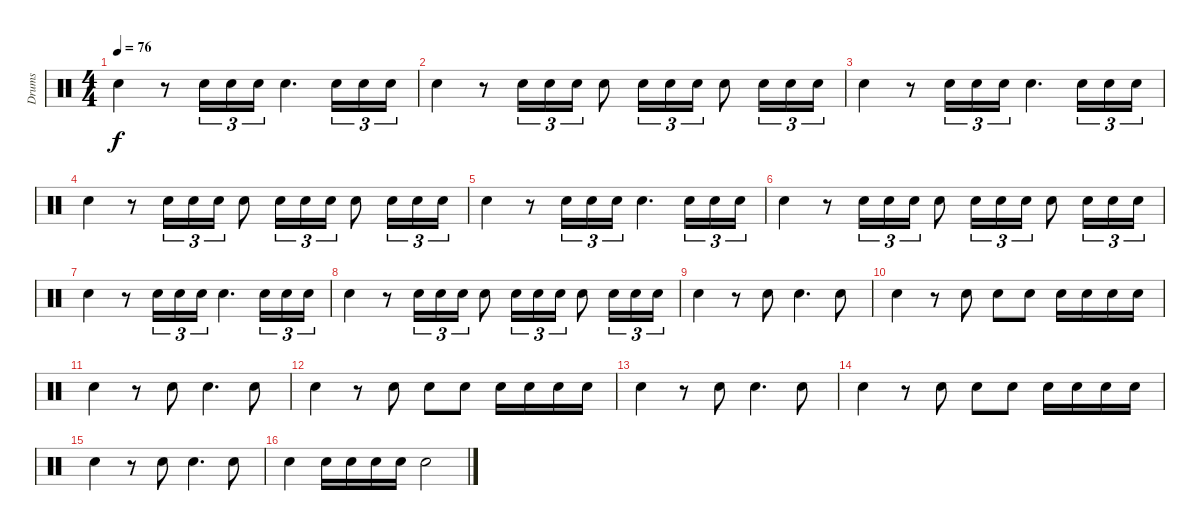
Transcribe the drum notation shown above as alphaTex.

\track ("Drums" "Drums") {instrument percussion}
\staff {score}
\articulation defaults
\ts (4 4)
\tempo 76
\clef neutral
\ks c "Snare (hit) 2".4{dy f}
r.8 "Snare (hit) 2".16{tu (3 2)} "Snare (hit) 2".16{tu (3 2)} "Snare (hit) 2".16{tu (3 2)} "Snare (hit) 2".4{d} "Snare (hit) 2".16{tu (3 2)} "Snare (hit) 2".16{tu (3 2)} "Snare (hit) 2".16{tu (3 2)} |
"Snare (hit) 2".4 r.8 "Snare (hit) 2".16{tu (3 2)} "Snare (hit) 2".16{tu (3 2)} "Snare (hit) 2".16{tu (3 2)} "Snare (hit) 2".8 "Snare (hit) 2".16{tu (3 2)} "Snare (hit) 2".16{tu (3 2)} "Snare (hit) 2".16{tu (3 2)} "Snare (hit) 2".8 "Snare (hit) 2".16{tu (3 2)} "Snare (hit) 2".16{tu (3 2)} "Snare (hit) 2".16{tu (3 2)} |
"Snare (hit) 2".4 r.8 "Snare (hit) 2".16{tu (3 2)} "Snare (hit) 2".16{tu (3 2)} "Snare (hit) 2".16{tu (3 2)} "Snare (hit) 2".4{d} "Snare (hit) 2".16{tu (3 2)} "Snare (hit) 2".16{tu (3 2)} "Snare (hit) 2".16{tu (3 2)} |
"Snare (hit) 2".4 r.8 "Snare (hit) 2".16{tu (3 2)} "Snare (hit) 2".16{tu (3 2)} "Snare (hit) 2".16{tu (3 2)} "Snare (hit) 2".8 "Snare (hit) 2".16{tu (3 2)} "Snare (hit) 2".16{tu (3 2)} "Snare (hit) 2".16{tu (3 2)} "Snare (hit) 2".8 "Snare (hit) 2".16{tu (3 2)} "Snare (hit) 2".16{tu (3 2)} "Snare (hit) 2".16{tu (3 2)} |
"Snare (hit) 2".4 r.8 "Snare (hit) 2".16{tu (3 2)} "Snare (hit) 2".16{tu (3 2)} "Snare (hit) 2".16{tu (3 2)} "Snare (hit) 2".4{d} "Snare (hit) 2".16{tu (3 2)} "Snare (hit) 2".16{tu (3 2)} "Snare (hit) 2".16{tu (3 2)} |
"Snare (hit) 2".4 r.8 "Snare (hit) 2".16{tu (3 2)} "Snare (hit) 2".16{tu (3 2)} "Snare (hit) 2".16{tu (3 2)} "Snare (hit) 2".8 "Snare (hit) 2".16{tu (3 2)} "Snare (hit) 2".16{tu (3 2)} "Snare (hit) 2".16{tu (3 2)} "Snare (hit) 2".8 "Snare (hit) 2".16{tu (3 2)} "Snare (hit) 2".16{tu (3 2)} "Snare (hit) 2".16{tu (3 2)} |
"Snare (hit) 2".4 r.8 "Snare (hit) 2".16{tu (3 2)} "Snare (hit) 2".16{tu (3 2)} "Snare (hit) 2".16{tu (3 2)} "Snare (hit) 2".4{d} "Snare (hit) 2".16{tu (3 2)} "Snare (hit) 2".16{tu (3 2)} "Snare (hit) 2".16{tu (3 2)} |
"Snare (hit) 2".4 r.8 "Snare (hit) 2".16{tu (3 2)} "Snare (hit) 2".16{tu (3 2)} "Snare (hit) 2".16{tu (3 2)} "Snare (hit) 2".8 "Snare (hit) 2".16{tu (3 2)} "Snare (hit) 2".16{tu (3 2)} "Snare (hit) 2".16{tu (3 2)} "Snare (hit) 2".8 "Snare (hit) 2".16{tu (3 2)} "Snare (hit) 2".16{tu (3 2)} "Snare (hit) 2".16{tu (3 2)} |
"Snare (hit) 2".4 r.8 "Snare (hit) 2"{tr (38 64)}.8 "Snare (hit) 2".4{d} "Snare (hit) 2"{tr (38 64)}.8 |
"Snare (hit) 2".4 r.8 "Snare (hit) 2"{tr (38 64)}.8 "Snare (hit) 2".8 "Snare (hit) 2"{tr (38 64)}.8 "Snare (hit) 2".16 "Snare (hit) 2".16 "Snare (hit) 2".16 "Snare (hit) 2".16 |
"Snare (hit) 2".4 r.8 "Snare (hit) 2"{tr (38 64)}.8 "Snare (hit) 2".4{d} "Snare (hit) 2"{tr (38 64)}.8 |
"Snare (hit) 2".4 r.8 "Snare (hit) 2"{tr (38 64)}.8 "Snare (hit) 2".8 "Snare (hit) 2"{tr (38 64)}.8 "Snare (hit) 2".16 "Snare (hit) 2".16 "Snare (hit) 2".16 "Snare (hit) 2".16 |
"Snare (hit) 2".4 r.8 "Snare (hit) 2"{tr (38 64)}.8 "Snare (hit) 2".4{d} "Snare (hit) 2"{tr (38 64)}.8 |
"Snare (hit) 2".4 r.8 "Snare (hit) 2"{tr (38 64)}.8 "Snare (hit) 2".8 "Snare (hit) 2"{tr (38 64)}.8 "Snare (hit) 2".16 "Snare (hit) 2".16 "Snare (hit) 2".16 "Snare (hit) 2".16 |
"Snare (hit) 2".4 r.8 "Snare (hit) 2"{tr (38 64)}.8 "Snare (hit) 2".4{d} "Snare (hit) 2"{tr (38 64)}.8 |
"Snare (hit) 2".4 "Snare (hit) 2".16 "Snare (hit) 2".16 "Snare (hit) 2".16 "Snare (hit) 2".16 "Snare (hit) 2".2
